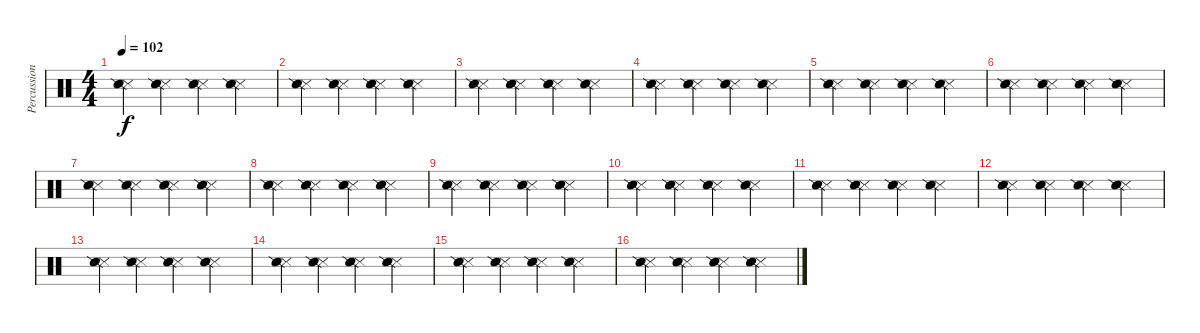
\track ("Percussion" "Percussion") {instrument percussion}
\staff {score}
\articulation defaults
\ts (4 4)
\tempo 102
\clef neutral
\ks c
("Metronome (hit)" "Snare (side stick) 2").4{dy f} ("Metronome (hit)" "Snare (side stick) 2").4 ("Metronome (hit)" "Snare (side stick) 2").4 ("Metronome (hit)" "Snare (side stick) 2").4 |
("Metronome (hit)" "Snare (side stick) 2").4 ("Metronome (hit)" "Snare (side stick) 2").4 ("Metronome (hit)" "Snare (side stick) 2").4 ("Metronome (hit)" "Snare (side stick) 2").4 |
("Metronome (hit)" "Snare (side stick) 2").4 ("Metronome (hit)" "Snare (side stick) 2").4 ("Metronome (hit)" "Snare (side stick) 2").4 ("Metronome (hit)" "Snare (side stick) 2").4 |
("Metronome (hit)" "Snare (side stick) 2").4 ("Metronome (hit)" "Snare (side stick) 2").4 ("Metronome (hit)" "Snare (side stick) 2").4 ("Metronome (hit)" "Snare (side stick) 2").4 |
("Metronome (hit)" "Snare (side stick) 2").4 ("Metronome (hit)" "Snare (side stick) 2").4 ("Metronome (hit)" "Snare (side stick) 2").4 ("Metronome (hit)" "Snare (side stick) 2").4 |
("Metronome (hit)" "Snare (side stick) 2").4 ("Metronome (hit)" "Snare (side stick) 2").4 ("Metronome (hit)" "Snare (side stick) 2").4 ("Metronome (hit)" "Snare (side stick) 2").4 |
("Metronome (hit)" "Snare (side stick) 2").4 ("Metronome (hit)" "Snare (side stick) 2").4 ("Metronome (hit)" "Snare (side stick) 2").4 ("Metronome (hit)" "Snare (side stick) 2").4 |
("Metronome (hit)" "Snare (side stick) 2").4 ("Metronome (hit)" "Snare (side stick) 2").4 ("Metronome (hit)" "Snare (side stick) 2").4 ("Metronome (hit)" "Snare (side stick) 2").4 |
("Metronome (hit)" "Snare (side stick) 2").4 ("Metronome (hit)" "Snare (side stick) 2").4 ("Metronome (hit)" "Snare (side stick) 2").4 ("Metronome (hit)" "Snare (side stick) 2").4 |
("Metronome (hit)" "Snare (side stick) 2").4 ("Metronome (hit)" "Snare (side stick) 2").4 ("Metronome (hit)" "Snare (side stick) 2").4 ("Metronome (hit)" "Snare (side stick) 2").4 |
("Metronome (hit)" "Snare (side stick) 2").4 ("Metronome (hit)" "Snare (side stick) 2").4 ("Metronome (hit)" "Snare (side stick) 2").4 ("Metronome (hit)" "Snare (side stick) 2").4 |
("Metronome (hit)" "Snare (side stick) 2").4 ("Metronome (hit)" "Snare (side stick) 2").4 ("Metronome (hit)" "Snare (side stick) 2").4 ("Metronome (hit)" "Snare (side stick) 2").4 |
("Metronome (hit)" "Snare (side stick) 2").4 ("Metronome (hit)" "Snare (side stick) 2").4 ("Metronome (hit)" "Snare (side stick) 2").4 ("Metronome (hit)" "Snare (side stick) 2").4 |
("Metronome (hit)" "Snare (side stick) 2").4 ("Metronome (hit)" "Snare (side stick) 2").4 ("Metronome (hit)" "Snare (side stick) 2").4 ("Metronome (hit)" "Snare (side stick) 2").4 |
("Metronome (hit)" "Snare (side stick) 2").4 ("Metronome (hit)" "Snare (side stick) 2").4 ("Metronome (hit)" "Snare (side stick) 2").4 ("Metronome (hit)" "Snare (side stick) 2").4 |
("Metronome (hit)" "Snare (side stick) 2").4 ("Metronome (hit)" "Snare (side stick) 2").4 ("Metronome (hit)" "Snare (side stick) 2").4 ("Metronome (hit)" "Snare (side stick) 2").4
